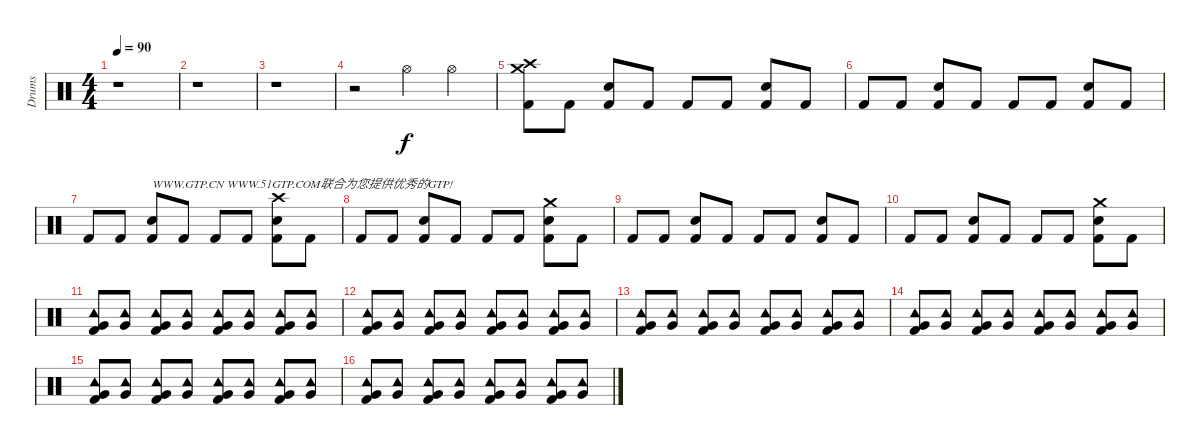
\track ("Drums" "Drums") {instrument percussion}
\staff {score}
\articulation defaults
\ts (4 4)
\tempo 90
\clef neutral
\ks c
r.1{dy f} |
r.1 |
r.1 |
r.2 "Hi-Hat (open)".4 "Hi-Hat (open)".4 |
("Crash high (hit)" "Crash medium (hit)" "Kick (hit) 2").8 "Kick (hit) 2".8 ("Snare (hit) 2" "Kick (hit) 2").8 "Kick (hit) 2".8 "Kick (hit) 2".8 "Kick (hit) 2".8 ("Kick (hit) 2" "Snare (hit) 2").8 "Kick (hit) 2".8 |
"Kick (hit) 2".8 "Kick (hit) 2".8 ("Kick (hit) 2" "Snare (hit) 2").8 "Kick (hit) 2".8 "Kick (hit) 2".8 "Kick (hit) 2".8 ("Kick (hit) 2" "Snare (hit) 2").8 "Kick (hit) 2".8 |
"Kick (hit) 2".8 "Kick (hit) 2".8 ("Kick (hit) 2" "Snare (hit) 2").8{txt "WWW.GTP.CN WWW.51GTP.COM联合为您提供优秀的GTP!"} "Kick (hit) 2".8 "Kick (hit) 2".8 "Kick (hit) 2".8 ("Crash high (hit)" "Kick (hit) 2" "Snare (hit) 2").8 "Kick (hit) 2".8 |
"Kick (hit) 2".8 "Kick (hit) 2".8 ("Kick (hit) 2" "Snare (hit) 2").8 "Kick (hit) 2".8 "Kick (hit) 2".8 "Kick (hit) 2".8 ("Crash medium (hit)" "Kick (hit) 2" "Snare (hit) 2").8 "Kick (hit) 2".8 |
"Kick (hit) 2".8 "Kick (hit) 2".8 ("Kick (hit) 2" "Snare (hit) 2").8 "Kick (hit) 2".8 "Kick (hit) 2".8 "Kick (hit) 2".8 ("Kick (hit) 2" "Snare (hit) 2").8 "Kick (hit) 2".8 |
"Kick (hit) 2".8 "Kick (hit) 2".8 ("Kick (hit) 2" "Snare (hit) 2").8 "Kick (hit) 2".8 "Kick (hit) 2".8 "Kick (hit) 2".8 ("Crash medium (hit)" "Kick (hit) 2" "Snare (hit) 2").8 "Kick (hit) 2".8 |
("Tambourine (hit)" "Kick (hit) 2" "Very Low Tom (hit)").8 ("Tambourine (hit)" "Very Low Tom (hit)").8 ("Tambourine (hit)" "Kick (hit) 2" "Very Low Tom (hit)").8 ("Tambourine (hit)" "Very Low Tom (hit)").8 ("Tambourine (hit)" "Kick (hit) 2" "Very Low Tom (hit)").8 ("Tambourine (hit)" "Very Low Tom (hit)").8 ("Tambourine (hit)" "Kick (hit) 2" "Very Low Tom (hit)").8 ("Tambourine (hit)" "Very Low Tom (hit)").8 |
("Tambourine (hit)" "Kick (hit) 2" "Very Low Tom (hit)").8 ("Tambourine (hit)" "Very Low Tom (hit)").8 ("Tambourine (hit)" "Kick (hit) 2" "Very Low Tom (hit)").8 ("Tambourine (hit)" "Very Low Tom (hit)").8 ("Tambourine (hit)" "Kick (hit) 2" "Very Low Tom (hit)").8 ("Tambourine (hit)" "Very Low Tom (hit)").8 ("Tambourine (hit)" "Kick (hit) 2" "Very Low Tom (hit)").8 ("Tambourine (hit)" "Very Low Tom (hit)").8 |
("Tambourine (hit)" "Kick (hit) 2" "Very Low Tom (hit)").8 ("Tambourine (hit)" "Very Low Tom (hit)").8 ("Tambourine (hit)" "Kick (hit) 2" "Very Low Tom (hit)").8 ("Tambourine (hit)" "Very Low Tom (hit)").8 ("Tambourine (hit)" "Kick (hit) 2" "Very Low Tom (hit)").8 ("Tambourine (hit)" "Very Low Tom (hit)").8 ("Tambourine (hit)" "Kick (hit) 2" "Very Low Tom (hit)").8 ("Tambourine (hit)" "Very Low Tom (hit)").8 |
("Tambourine (hit)" "Kick (hit) 2" "Very Low Tom (hit)").8 ("Tambourine (hit)" "Very Low Tom (hit)").8 ("Tambourine (hit)" "Kick (hit) 2" "Very Low Tom (hit)").8 ("Tambourine (hit)" "Very Low Tom (hit)").8 ("Tambourine (hit)" "Kick (hit) 2" "Very Low Tom (hit)").8 ("Tambourine (hit)" "Very Low Tom (hit)").8 ("Tambourine (hit)" "Kick (hit) 2" "Very Low Tom (hit)").8 ("Tambourine (hit)" "Very Low Tom (hit)").8 |
("Tambourine (hit)" "Kick (hit) 2" "Very Low Tom (hit)").8 ("Tambourine (hit)" "Very Low Tom (hit)").8 ("Tambourine (hit)" "Kick (hit) 2" "Very Low Tom (hit)").8 ("Tambourine (hit)" "Very Low Tom (hit)").8 ("Tambourine (hit)" "Kick (hit) 2" "Very Low Tom (hit)").8 ("Tambourine (hit)" "Very Low Tom (hit)").8 ("Tambourine (hit)" "Kick (hit) 2" "Very Low Tom (hit)").8 ("Tambourine (hit)" "Very Low Tom (hit)").8 |
("Tambourine (hit)" "Kick (hit) 2" "Very Low Tom (hit)").8 ("Tambourine (hit)" "Very Low Tom (hit)").8 ("Tambourine (hit)" "Kick (hit) 2" "Very Low Tom (hit)").8 ("Tambourine (hit)" "Very Low Tom (hit)").8 ("Tambourine (hit)" "Kick (hit) 2" "Very Low Tom (hit)").8 ("Tambourine (hit)" "Very Low Tom (hit)").8 ("Tambourine (hit)" "Kick (hit) 2" "Very Low Tom (hit)").8 ("Tambourine (hit)" "Very Low Tom (hit)").8
